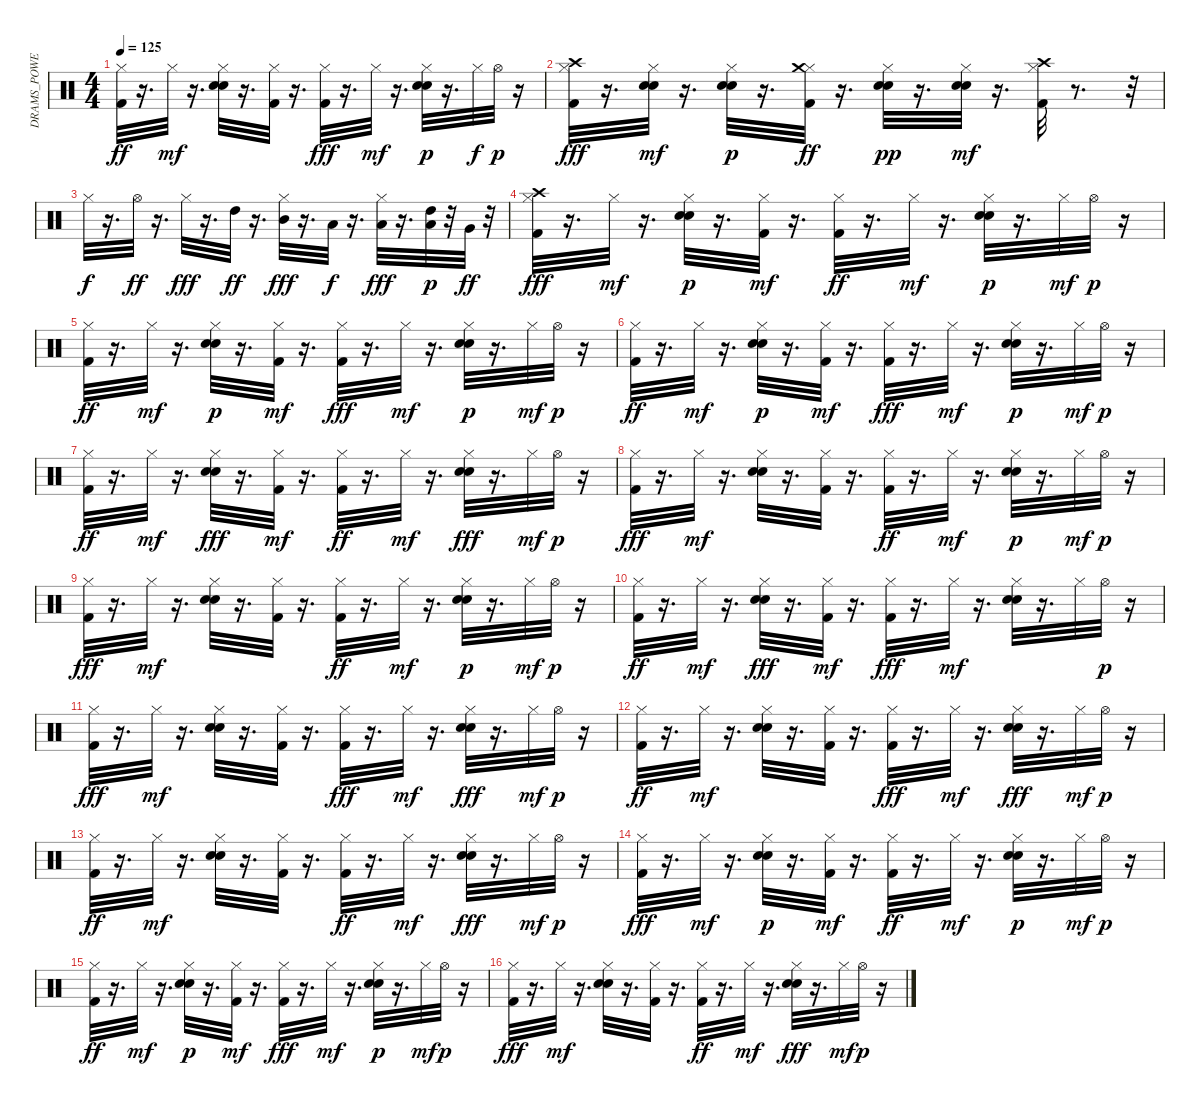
\track ("DRAMS_POWER" "DRAMS_POWE") {instrument percussion}
\staff {score}
\articulation defaults
\ts (4 4)
\tempo 125
\clef neutral
\ks c
("Hi-Hat (closed)" "Kick (hit) 2").32{dy ff} r.16{d} "Hi-Hat (closed)".32{dy mf} r.16{d} ("Electric Snare (hit)" "Snare (hit) 2" "Hi-Hat (closed)").32 r.16{d} ("Hi-Hat (closed)" "Kick (hit) 2").32 r.16{d} ("Kick (hit) 2" "Hi-Hat (closed)").32{dy fff} r.16{d} "Hi-Hat (closed)".32{dy mf} r.16{d} ("Electric Snare (hit)" "Hi-Hat (closed)" "Snare (hit) 2").32{dy p} r.16{d} "Hi-Hat (closed)".32{dy f} "Hi-Hat (open)".32{dy p} r.16 |
("Crash high (hit)" "Kick (hit) 2" "Hi-Hat (closed)").32{dy fff} r.16{d} ("Snare (hit) 2" "Electric Snare (hit)" "Hi-Hat (closed)").32{dy mf} r.16{d} ("Electric Snare (hit)" "Hi-Hat (closed)" "Snare (hit) 2").32{dy p} r.16{d} ("Hi-Hat (closed)" "Crash medium (hit)" "Kick (hit) 2").32{dy ff} r.16{d} ("Electric Snare (hit)" "Hi-Hat (closed)" "Snare (hit) 2").32{dy pp} r.16{d} ("Electric Snare (hit)" "Snare (hit) 2" "Hi-Hat (closed)").32{dy mf} r.16{d} ("Kick (hit) 2" "Hi-Hat (closed)" "Crash high (hit)").32 r.8{d} r.32 |
"Hi-Hat (closed)".32{dy f} r.16{d} "Hi-Hat (open)".32{dy ff} r.16{d} "Hi-Hat (closed)".32{dy fff} r.16{d} "High Tom (hit)".32{dy ff} r.16{d} ("Hi-Hat (closed)" "Mid Tom (hit)").32{dy fff} r.16{d} "Low Tom (hit)".32{dy f} r.16{d} ("Hi-Hat (closed)" "Low Tom (hit)").32{dy fff} r.16{d} ("Low Floor Tom (hit)" "High Tom (hit)").32{dy p} r.32 "Very Low Tom (hit)".32{dy ff} r.32 |
("Crash high (hit)" "Kick (hit) 2" "Hi-Hat (closed)").32{dy fff} r.16{d} "Hi-Hat (closed)".32{dy mf} r.16{d} ("Electric Snare (hit)" "Hi-Hat (closed)" "Snare (hit) 2").32{dy p} r.16{d} ("Kick (hit) 2" "Hi-Hat (closed)").32{dy mf} r.16{d} ("Hi-Hat (closed)" "Kick (hit) 2").32{dy ff} r.16{d} "Hi-Hat (closed)".32{dy mf} r.16{d} ("Hi-Hat (closed)" "Electric Snare (hit)" "Snare (hit) 2").32{dy p} r.16{d} "Hi-Hat (closed)".32{dy mf} "Hi-Hat (open)".32{dy p} r.16 |
("Hi-Hat (closed)" "Kick (hit) 2").32{dy ff} r.16{d} "Hi-Hat (closed)".32{dy mf} r.16{d} ("Hi-Hat (closed)" "Electric Snare (hit)" "Snare (hit) 2").32{dy p} r.16{d} ("Hi-Hat (closed)" "Kick (hit) 2").32{dy mf} r.16{d} ("Kick (hit) 2" "Hi-Hat (closed)").32{dy fff} r.16{d} "Hi-Hat (closed)".32{dy mf} r.16{d} ("Hi-Hat (closed)" "Electric Snare (hit)" "Snare (hit) 2").32{dy p} r.16{d} "Hi-Hat (closed)".32{dy mf} "Hi-Hat (open)".32{dy p} r.16 |
("Hi-Hat (closed)" "Kick (hit) 2").32{dy ff} r.16{d} "Hi-Hat (closed)".32{dy mf} r.16{d} ("Electric Snare (hit)" "Hi-Hat (closed)" "Snare (hit) 2").32{dy p} r.16{d} ("Kick (hit) 2" "Hi-Hat (closed)").32{dy mf} r.16{d} ("Kick (hit) 2" "Hi-Hat (closed)").32{dy fff} r.16{d} "Hi-Hat (closed)".32{dy mf} r.16{d} ("Electric Snare (hit)" "Hi-Hat (closed)" "Snare (hit) 2").32{dy p} r.16{d} "Hi-Hat (closed)".32{dy mf} "Hi-Hat (open)".32{dy p} r.16 |
("Hi-Hat (closed)" "Kick (hit) 2").32{dy ff} r.16{d} "Hi-Hat (closed)".32{dy mf} r.16{d} ("Snare (hit) 2" "Hi-Hat (closed)" "Electric Snare (hit)").32{dy fff} r.16{d} ("Hi-Hat (closed)" "Kick (hit) 2").32{dy mf} r.16{d} ("Hi-Hat (closed)" "Kick (hit) 2").32{dy ff} r.16{d} "Hi-Hat (closed)".32{dy mf} r.16{d} ("Snare (hit) 2" "Hi-Hat (closed)" "Electric Snare (hit)").32{dy fff} r.16{d} "Hi-Hat (closed)".32{dy mf} "Hi-Hat (open)".32{dy p} r.16 |
("Kick (hit) 2" "Hi-Hat (closed)").32{dy fff} r.16{d} "Hi-Hat (closed)".32{dy mf} r.16{d} ("Snare (hit) 2" "Electric Snare (hit)" "Hi-Hat (closed)").32 r.16{d} ("Kick (hit) 2" "Hi-Hat (closed)").32 r.16{d} ("Hi-Hat (closed)" "Kick (hit) 2").32{dy ff} r.16{d} "Hi-Hat (closed)".32{dy mf} r.16{d} ("Hi-Hat (closed)" "Electric Snare (hit)" "Snare (hit) 2").32{dy p} r.16{d} "Hi-Hat (closed)".32{dy mf} "Hi-Hat (open)".32{dy p} r.16 |
("Kick (hit) 2" "Hi-Hat (closed)").32{dy fff} r.16{d} "Hi-Hat (closed)".32{dy mf} r.16{d} ("Snare (hit) 2" "Electric Snare (hit)" "Hi-Hat (closed)").32 r.16{d} ("Hi-Hat (closed)" "Kick (hit) 2").32 r.16{d} ("Hi-Hat (closed)" "Kick (hit) 2").32{dy ff} r.16{d} "Hi-Hat (closed)".32{dy mf} r.16{d} ("Hi-Hat (closed)" "Electric Snare (hit)" "Snare (hit) 2").32{dy p} r.16{d} "Hi-Hat (closed)".32{dy mf} "Hi-Hat (open)".32{dy p} r.16 |
("Hi-Hat (closed)" "Kick (hit) 2").32{dy ff} r.16{d} "Hi-Hat (closed)".32{dy mf} r.16{d} ("Snare (hit) 2" "Hi-Hat (closed)" "Electric Snare (hit)").32{dy fff} r.16{d} ("Hi-Hat (closed)" "Kick (hit) 2").32{dy mf} r.16{d} ("Kick (hit) 2" "Hi-Hat (closed)").32{dy fff} r.16{d} "Hi-Hat (closed)".32{dy mf} r.16{d} ("Electric Snare (hit)" "Snare (hit) 2" "Hi-Hat (closed)").32 r.16{d} "Hi-Hat (closed)".32 "Hi-Hat (open)".32{dy p} r.16 |
("Kick (hit) 2" "Hi-Hat (closed)").32{dy fff} r.16{d} "Hi-Hat (closed)".32{dy mf} r.16{d} ("Snare (hit) 2" "Electric Snare (hit)" "Hi-Hat (closed)").32 r.16{d} ("Kick (hit) 2" "Hi-Hat (closed)").32 r.16{d} ("Kick (hit) 2" "Hi-Hat (closed)").32{dy fff} r.16{d} "Hi-Hat (closed)".32{dy mf} r.16{d} ("Hi-Hat (closed)" "Snare (hit) 2" "Electric Snare (hit)").32{dy fff} r.16{d} "Hi-Hat (closed)".32{dy mf} "Hi-Hat (open)".32{dy p} r.16 |
("Hi-Hat (closed)" "Kick (hit) 2").32{dy ff} r.16{d} "Hi-Hat (closed)".32{dy mf} r.16{d} ("Electric Snare (hit)" "Snare (hit) 2" "Hi-Hat (closed)").32 r.16{d} ("Hi-Hat (closed)" "Kick (hit) 2").32 r.16{d} ("Kick (hit) 2" "Hi-Hat (closed)").32{dy fff} r.16{d} "Hi-Hat (closed)".32{dy mf} r.16{d} ("Hi-Hat (closed)" "Snare (hit) 2" "Electric Snare (hit)").32{dy fff} r.16{d} "Hi-Hat (closed)".32{dy mf} "Hi-Hat (open)".32{dy p} r.16 |
("Hi-Hat (closed)" "Kick (hit) 2").32{dy ff} r.16{d} "Hi-Hat (closed)".32{dy mf} r.16{d} ("Electric Snare (hit)" "Snare (hit) 2" "Hi-Hat (closed)").32 r.16{d} ("Kick (hit) 2" "Hi-Hat (closed)").32 r.16{d} ("Hi-Hat (closed)" "Kick (hit) 2").32{dy ff} r.16{d} "Hi-Hat (closed)".32{dy mf} r.16{d} ("Snare (hit) 2" "Hi-Hat (closed)" "Electric Snare (hit)").32{dy fff} r.16{d} "Hi-Hat (closed)".32{dy mf} "Hi-Hat (open)".32{dy p} r.16 |
("Kick (hit) 2" "Hi-Hat (closed)").32{dy fff} r.16{d} "Hi-Hat (closed)".32{dy mf} r.16{d} ("Electric Snare (hit)" "Hi-Hat (closed)" "Snare (hit) 2").32{dy p} r.16{d} ("Kick (hit) 2" "Hi-Hat (closed)").32{dy mf} r.16{d} ("Hi-Hat (closed)" "Kick (hit) 2").32{dy ff} r.16{d} "Hi-Hat (closed)".32{dy mf} r.16{d} ("Hi-Hat (closed)" "Electric Snare (hit)" "Snare (hit) 2").32{dy p} r.16{d} "Hi-Hat (closed)".32{dy mf} "Hi-Hat (open)".32{dy p} r.16 |
("Hi-Hat (closed)" "Kick (hit) 2").32{dy ff} r.16{d} "Hi-Hat (closed)".32{dy mf} r.16{d} ("Hi-Hat (closed)" "Electric Snare (hit)" "Snare (hit) 2").32{dy p} r.16{d} ("Hi-Hat (closed)" "Kick (hit) 2").32{dy mf} r.16{d} ("Kick (hit) 2" "Hi-Hat (closed)").32{dy fff} r.16{d} "Hi-Hat (closed)".32{dy mf} r.16{d} ("Hi-Hat (closed)" "Electric Snare (hit)" "Snare (hit) 2").32{dy p} r.16{d} "Hi-Hat (closed)".32{dy mf} "Hi-Hat (open)".32{dy p} r.16 |
("Kick (hit) 2" "Hi-Hat (closed)").32{dy fff} r.16{d} "Hi-Hat (closed)".32{dy mf} r.16{d} ("Snare (hit) 2" "Electric Snare (hit)" "Hi-Hat (closed)").32 r.16{d} ("Kick (hit) 2" "Hi-Hat (closed)").32 r.16{d} ("Hi-Hat (closed)" "Kick (hit) 2").32{dy ff} r.16{d} "Hi-Hat (closed)".32{dy mf} r.16{d} ("Snare (hit) 2" "Hi-Hat (closed)" "Electric Snare (hit)").32{dy fff} r.16{d} "Hi-Hat (closed)".32{dy mf} "Hi-Hat (open)".32{dy p} r.16
